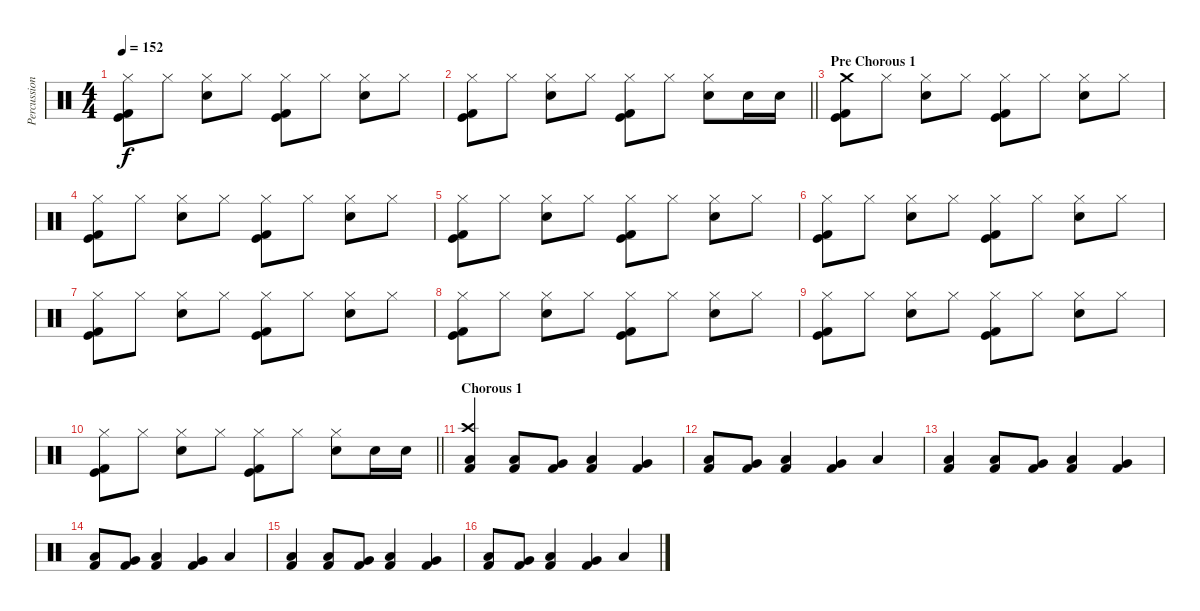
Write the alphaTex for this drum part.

\track ("Percussion" "Percussion") {instrument percussion}
\staff {score}
\articulation defaults
\ts (4 4)
\tempo 152
\clef neutral
\ks c
("Hi-Hat (closed)" "Kick (hit)" "Kick (hit) 2").8{dy f} "Hi-Hat (closed)".8 ("Hi-Hat (closed)" "Electric Snare (hit)").8 "Hi-Hat (closed)".8 ("Hi-Hat (closed)" "Kick (hit)" "Kick (hit) 2").8 "Hi-Hat (closed)".8 ("Hi-Hat (closed)" "Electric Snare (hit)").8 "Hi-Hat (closed)".8 |
\barLineRight lightlight
("Hi-Hat (closed)" "Kick (hit)" "Kick (hit) 2").8 "Hi-Hat (closed)".8 ("Hi-Hat (closed)" "Electric Snare (hit)").8 "Hi-Hat (closed)".8 ("Hi-Hat (closed)" "Kick (hit)" "Kick (hit) 2").8 "Hi-Hat (closed)".8 ("Hi-Hat (closed)" "Electric Snare (hit)").8 "Electric Snare (hit)".16 "Electric Snare (hit)".16 |
\section ("" "Pre Chorous 1")
("Crash medium (hit)" "Kick (hit)" "Kick (hit) 2").8 "Hi-Hat (closed)".8 ("Hi-Hat (closed)" "Electric Snare (hit)").8 "Hi-Hat (closed)".8 ("Hi-Hat (closed)" "Kick (hit)" "Kick (hit) 2").8 "Hi-Hat (closed)".8 ("Hi-Hat (closed)" "Electric Snare (hit)").8 "Hi-Hat (closed)".8 |
("Hi-Hat (closed)" "Kick (hit)" "Kick (hit) 2").8 "Hi-Hat (closed)".8 ("Hi-Hat (closed)" "Electric Snare (hit)").8 "Hi-Hat (closed)".8 ("Hi-Hat (closed)" "Kick (hit)" "Kick (hit) 2").8 "Hi-Hat (closed)".8 ("Hi-Hat (closed)" "Electric Snare (hit)").8 "Hi-Hat (closed)".8 |
("Hi-Hat (closed)" "Kick (hit)" "Kick (hit) 2").8 "Hi-Hat (closed)".8 ("Hi-Hat (closed)" "Electric Snare (hit)").8 "Hi-Hat (closed)".8 ("Hi-Hat (closed)" "Kick (hit)" "Kick (hit) 2").8 "Hi-Hat (closed)".8 ("Hi-Hat (closed)" "Electric Snare (hit)").8 "Hi-Hat (closed)".8 |
("Hi-Hat (closed)" "Kick (hit)" "Kick (hit) 2").8 "Hi-Hat (closed)".8 ("Hi-Hat (closed)" "Electric Snare (hit)").8 "Hi-Hat (closed)".8 ("Hi-Hat (closed)" "Kick (hit)" "Kick (hit) 2").8 "Hi-Hat (closed)".8 ("Hi-Hat (closed)" "Electric Snare (hit)").8 "Hi-Hat (closed)".8 |
("Hi-Hat (closed)" "Kick (hit)" "Kick (hit) 2").8 "Hi-Hat (closed)".8 ("Hi-Hat (closed)" "Electric Snare (hit)").8 "Hi-Hat (closed)".8 ("Hi-Hat (closed)" "Kick (hit)" "Kick (hit) 2").8 "Hi-Hat (closed)".8 ("Hi-Hat (closed)" "Electric Snare (hit)").8 "Hi-Hat (closed)".8 |
("Hi-Hat (closed)" "Kick (hit)" "Kick (hit) 2").8 "Hi-Hat (closed)".8 ("Hi-Hat (closed)" "Electric Snare (hit)").8 "Hi-Hat (closed)".8 ("Hi-Hat (closed)" "Kick (hit)" "Kick (hit) 2").8 "Hi-Hat (closed)".8 ("Hi-Hat (closed)" "Electric Snare (hit)").8 "Hi-Hat (closed)".8 |
("Hi-Hat (closed)" "Kick (hit)" "Kick (hit) 2").8 "Hi-Hat (closed)".8 ("Hi-Hat (closed)" "Electric Snare (hit)").8 "Hi-Hat (closed)".8 ("Hi-Hat (closed)" "Kick (hit)" "Kick (hit) 2").8 "Hi-Hat (closed)".8 ("Hi-Hat (closed)" "Electric Snare (hit)").8 "Hi-Hat (closed)".8 |
\barLineRight lightlight
("Hi-Hat (closed)" "Kick (hit)" "Kick (hit) 2").8 "Hi-Hat (closed)".8 ("Hi-Hat (closed)" "Electric Snare (hit)").8 "Hi-Hat (closed)".8 ("Hi-Hat (closed)" "Kick (hit)" "Kick (hit) 2").8 "Hi-Hat (closed)".8 ("Hi-Hat (closed)" "Electric Snare (hit)").8 "Electric Snare (hit)".16 "Electric Snare (hit)".16 |
\section ("" "Chorous 1")
("Crash high (hit)" "Kick (hit) 2" "Low Tom (hit)").4 ("Kick (hit) 2" "Low Tom (hit)").8 ("Kick (hit) 2" "Very Low Tom (hit)").8 ("Kick (hit) 2" "Low Floor Tom (hit)").4 ("Kick (hit) 2" "Very Low Tom (hit)").4 |
("Kick (hit) 2" "Low Tom (hit)").8 ("Kick (hit) 2" "Very Low Tom (hit)").8 ("Kick (hit) 2" "Low Floor Tom (hit)").4 ("Kick (hit) 2" "Very Low Tom (hit)").4 "Low Floor Tom (hit)".4 |
("Kick (hit) 2" "Low Tom (hit)").4 ("Kick (hit) 2" "Low Tom (hit)").8 ("Kick (hit) 2" "Very Low Tom (hit)").8 ("Kick (hit) 2" "Low Floor Tom (hit)").4 ("Kick (hit) 2" "Very Low Tom (hit)").4 |
("Kick (hit) 2" "Low Tom (hit)").8 ("Kick (hit) 2" "Very Low Tom (hit)").8 ("Kick (hit) 2" "Low Floor Tom (hit)").4 ("Kick (hit) 2" "Very Low Tom (hit)").4 "Low Floor Tom (hit)".4 |
("Kick (hit) 2" "Low Tom (hit)").4 ("Kick (hit) 2" "Low Tom (hit)").8 ("Kick (hit) 2" "Very Low Tom (hit)").8 ("Kick (hit) 2" "Low Floor Tom (hit)").4 ("Kick (hit) 2" "Very Low Tom (hit)").4 |
("Kick (hit) 2" "Low Tom (hit)").8 ("Kick (hit) 2" "Very Low Tom (hit)").8 ("Kick (hit) 2" "Low Floor Tom (hit)").4 ("Kick (hit) 2" "Very Low Tom (hit)").4 "Low Floor Tom (hit)".4
